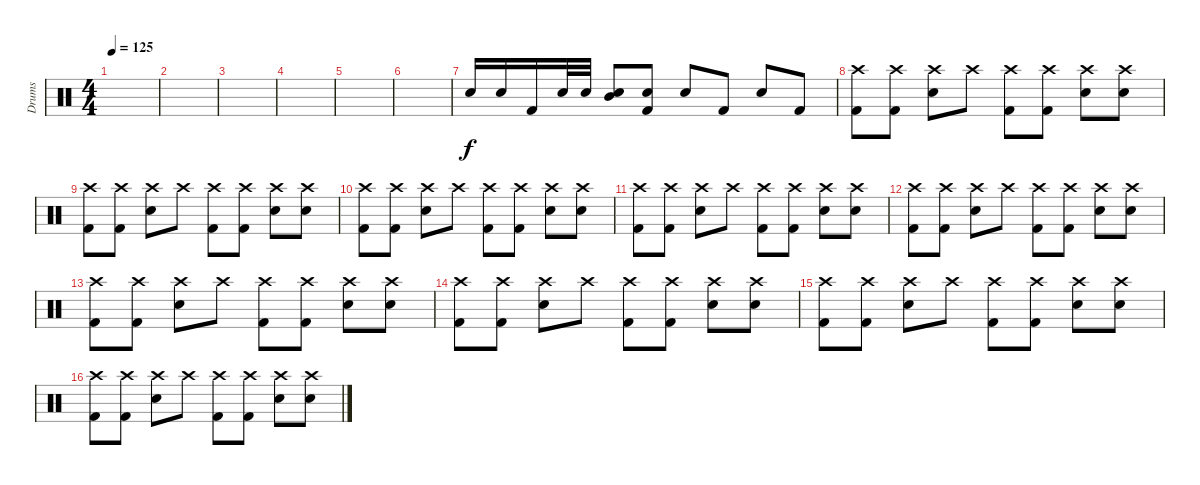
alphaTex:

\track ("Drums" "Drums") {instrument percussion}
\staff {score}
\articulation defaults
\ts (4 4)
\tempo 125
\clef neutral
\ks c
|
|
|
|
|
|
"Snare (hit)".16 "Snare (hit)".16 "Kick (hit) 2".16 "Snare (hit) 2".32 "Snare (hit) 2".32 ("Mid Tom (hit)" "Snare (hit)").8 ("Snare (hit)" "Kick (hit) 2").8 "Snare (hit) 2".8 "Kick (hit) 2".8 "Snare (hit) 2".8 "Kick (hit) 2".8 |
("Kick (hit) 2" "Crash high (hit)").8 ("Kick (hit) 2" "Crash high (hit)").8 ("Snare (hit) 2" "Crash high (hit)").8 "Crash high (hit)".8 ("Kick (hit) 2" "Crash high (hit)").8 ("Kick (hit) 2" "Crash high (hit)").8 ("Snare (hit) 2" "Crash high (hit)").8 ("Snare (hit)" "Crash high (hit)").8 |
("Kick (hit) 2" "Crash high (hit)").8 ("Kick (hit) 2" "Crash high (hit)").8 ("Snare (hit) 2" "Crash high (hit)").8 "Crash high (hit)".8 ("Kick (hit) 2" "Crash high (hit)").8 ("Kick (hit) 2" "Crash high (hit)").8 ("Snare (hit) 2" "Crash high (hit)").8 ("Snare (hit)" "Crash high (hit)").8 |
("Kick (hit) 2" "Crash high (hit)").8 ("Kick (hit) 2" "Crash high (hit)").8 ("Snare (hit) 2" "Crash high (hit)").8 "Crash high (hit)".8 ("Kick (hit) 2" "Crash high (hit)").8 ("Kick (hit) 2" "Crash high (hit)").8 ("Snare (hit) 2" "Crash high (hit)").8 ("Snare (hit)" "Crash high (hit)").8 |
("Kick (hit) 2" "Crash high (hit)").8 ("Kick (hit) 2" "Crash high (hit)").8 ("Snare (hit) 2" "Crash high (hit)").8 "Crash high (hit)".8 ("Kick (hit) 2" "Crash high (hit)").8 ("Kick (hit) 2" "Crash high (hit)").8 ("Snare (hit) 2" "Crash high (hit)").8 ("Snare (hit)" "Crash high (hit)").8 |
("Kick (hit) 2" "Crash high (hit)").8 ("Kick (hit) 2" "Crash high (hit)").8 ("Snare (hit) 2" "Crash high (hit)").8 "Crash high (hit)".8 ("Kick (hit) 2" "Crash high (hit)").8 ("Kick (hit) 2" "Crash high (hit)").8 ("Snare (hit) 2" "Crash high (hit)").8 ("Snare (hit)" "Crash high (hit)").8 |
("Kick (hit) 2" "Crash high (hit)").8 ("Kick (hit) 2" "Crash high (hit)").8 ("Snare (hit) 2" "Crash high (hit)").8 "Crash high (hit)".8 ("Kick (hit) 2" "Crash high (hit)").8 ("Kick (hit) 2" "Crash high (hit)").8 ("Snare (hit) 2" "Crash high (hit)").8 ("Snare (hit)" "Crash high (hit)").8 |
("Kick (hit) 2" "Crash high (hit)").8 ("Kick (hit) 2" "Crash high (hit)").8 ("Snare (hit) 2" "Crash high (hit)").8 "Crash high (hit)".8 ("Kick (hit) 2" "Crash high (hit)").8 ("Kick (hit) 2" "Crash high (hit)").8 ("Snare (hit) 2" "Crash high (hit)").8 ("Snare (hit)" "Crash high (hit)").8 |
("Kick (hit) 2" "Crash high (hit)").8 ("Kick (hit) 2" "Crash high (hit)").8 ("Snare (hit) 2" "Crash high (hit)").8 "Crash high (hit)".8 ("Kick (hit) 2" "Crash high (hit)").8 ("Kick (hit) 2" "Crash high (hit)").8 ("Snare (hit) 2" "Crash high (hit)").8 ("Snare (hit)" "Crash high (hit)").8 |
("Kick (hit) 2" "Crash high (hit)").8 ("Kick (hit) 2" "Crash high (hit)").8 ("Snare (hit) 2" "Crash high (hit)").8 "Crash high (hit)".8 ("Kick (hit) 2" "Crash high (hit)").8 ("Kick (hit) 2" "Crash high (hit)").8 ("Snare (hit) 2" "Crash high (hit)").8 ("Snare (hit)" "Crash high (hit)").8
